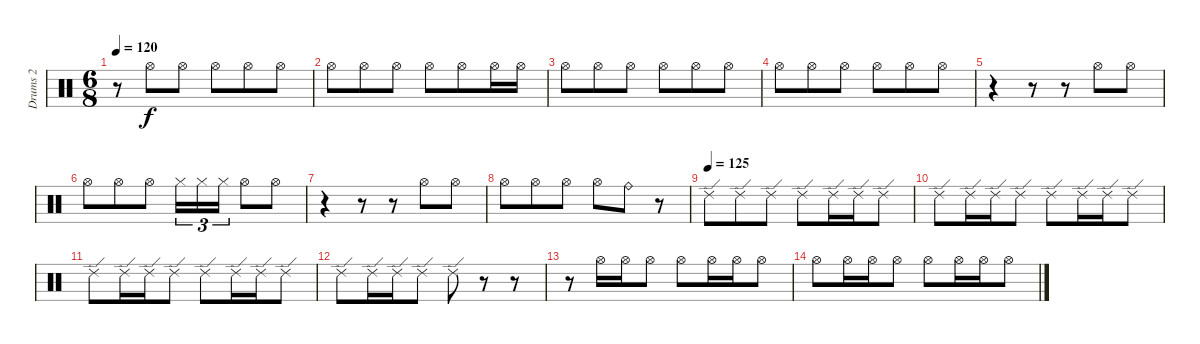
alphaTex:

\track ("Drums 2" "Drums 2") {instrument percussion}
\staff {score}
\articulation defaults
\ts (6 8)
\tempo 120
\clef neutral
\ks c
r.8{dy f} "Hi-Hat (open)".8 "Hi-Hat (open)".8 "Hi-Hat (open)".8 "Hi-Hat (open)".8 "Hi-Hat (open)".8 |
"Hi-Hat (open)".8 "Hi-Hat (open)".8 "Hi-Hat (open)".8 "Hi-Hat (open)".8 "Hi-Hat (open)".8 "Hi-Hat (open)".16 "Hi-Hat (open)".16 |
"Hi-Hat (open)".8 "Hi-Hat (open)".8 "Hi-Hat (open)".8 "Hi-Hat (open)".8 "Hi-Hat (open)".8 "Hi-Hat (open)".8 |
"Hi-Hat (open)".8 "Hi-Hat (open)".8 "Hi-Hat (open)".8 "Hi-Hat (open)".8 "Hi-Hat (open)".8 "Hi-Hat (open)".8 |
r.4 r.8 r.8 "Hi-Hat (open)".8 "Hi-Hat (open)".8 |
"Hi-Hat (open)".8 "Hi-Hat (open)".8 "Hi-Hat (open)".8 "Hi-Hat (closed)".16{tu (3 2)} "Hi-Hat (closed)".16{tu (3 2)} "Hi-Hat (closed)".16{tu (3 2)} "Hi-Hat (open)".8 "Hi-Hat (open)".8 |
r.4 r.8 r.8 "Hi-Hat (open)".8 "Hi-Hat (open)".8 |
"Hi-Hat (open)".8 "Hi-Hat (open)".8 "Hi-Hat (open)".8 "Hi-Hat (open)".8 "Ride (bell)".8 r.8 |
\tempo (125)
"Ride (edge) 2".8 "Ride (edge) 2".8 "Ride (edge) 2".8 "Ride (edge) 2".8 "Ride (edge) 2".16 "Ride (edge) 2".16 "Ride (edge) 2".8 |
"Ride (edge) 2".8 "Ride (edge) 2".16 "Ride (edge) 2".16 "Ride (edge) 2".8 "Ride (edge) 2".8 "Ride (edge) 2".16 "Ride (edge) 2".16 "Ride (edge) 2".8 |
"Ride (edge) 2".8 "Ride (edge) 2".16 "Ride (edge) 2".16 "Ride (edge) 2".8 "Ride (edge) 2".8 "Ride (edge) 2".16 "Ride (edge) 2".16 "Ride (edge) 2".8 |
"Ride (edge) 2".8 "Ride (edge) 2".16 "Ride (edge) 2".16 "Ride (edge) 2".8 "Ride (edge) 2".8 r.8 r.8 |
r.8 "Hi-Hat (open)".16 "Hi-Hat (open)".16 "Hi-Hat (open)".8 "Hi-Hat (open)".8 "Hi-Hat (open)".16 "Hi-Hat (open)".16 "Hi-Hat (open)".8 |
"Hi-Hat (open)".8 "Hi-Hat (open)".16 "Hi-Hat (open)".16 "Hi-Hat (open)".8 "Hi-Hat (open)".8 "Hi-Hat (open)".16 "Hi-Hat (open)".16 "Hi-Hat (open)".8
